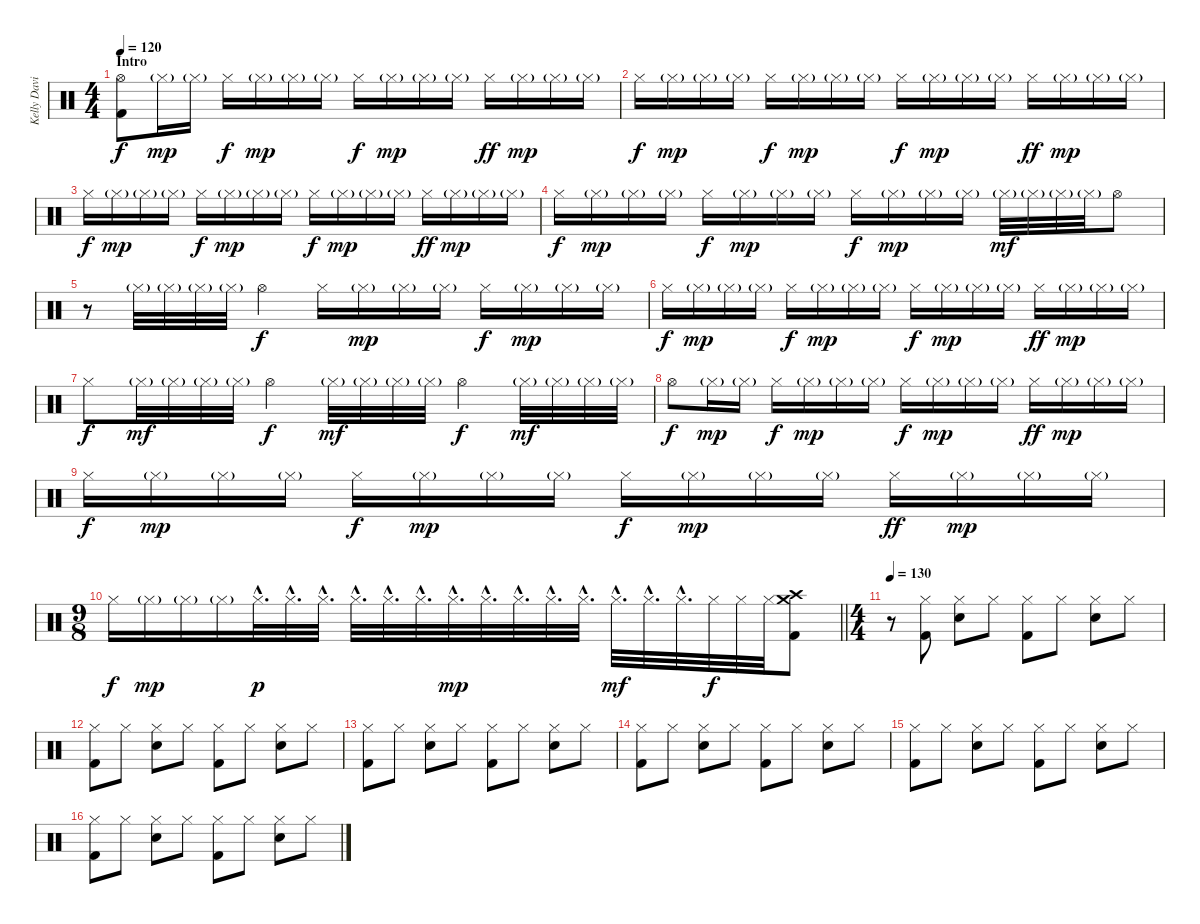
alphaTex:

\track ("Kelly David Smith" "Kelly Davi") {instrument percussion}
\staff {score}
\articulation defaults
\ts (4 4)
\section ("" "Intro")
\tempo 120
\clef neutral
\ks c
("Hi-Hat (open)" "Kick (hit) 2").8{dy f} "Hi-Hat (closed)"{g}.16{dy mp} "Hi-Hat (closed)"{g}.16 "Hi-Hat (closed)".16{dy f} "Hi-Hat (closed)"{g}.16{dy mp} "Hi-Hat (closed)"{g}.16 "Hi-Hat (closed)"{g}.16 "Hi-Hat (closed)".16{dy f} "Hi-Hat (closed)"{g}.16{dy mp} "Hi-Hat (closed)"{g}.16 "Hi-Hat (closed)"{g}.16 "Hi-Hat (closed)".16{dy ff} "Hi-Hat (closed)"{g}.16{dy mp} "Hi-Hat (closed)"{g}.16 "Hi-Hat (closed)"{g}.16 |
"Hi-Hat (closed)".16{dy f} "Hi-Hat (closed)"{g}.16{dy mp} "Hi-Hat (closed)"{g}.16 "Hi-Hat (closed)"{g}.16 "Hi-Hat (closed)".16{dy f} "Hi-Hat (closed)"{g}.16{dy mp} "Hi-Hat (closed)"{g}.16 "Hi-Hat (closed)"{g}.16 "Hi-Hat (closed)".16{dy f} "Hi-Hat (closed)"{g}.16{dy mp} "Hi-Hat (closed)"{g}.16 "Hi-Hat (closed)"{g}.16 "Hi-Hat (closed)".16{dy ff} "Hi-Hat (closed)"{g}.16{dy mp} "Hi-Hat (closed)"{g}.16 "Hi-Hat (closed)"{g}.16 |
"Hi-Hat (closed)".16{dy f} "Hi-Hat (closed)"{g}.16{dy mp} "Hi-Hat (closed)"{g}.16 "Hi-Hat (closed)"{g}.16 "Hi-Hat (closed)".16{dy f} "Hi-Hat (closed)"{g}.16{dy mp} "Hi-Hat (closed)"{g}.16 "Hi-Hat (closed)"{g}.16 "Hi-Hat (closed)".16{dy f} "Hi-Hat (closed)"{g}.16{dy mp} "Hi-Hat (closed)"{g}.16 "Hi-Hat (closed)"{g}.16 "Hi-Hat (closed)".16{dy ff} "Hi-Hat (closed)"{g}.16{dy mp} "Hi-Hat (closed)"{g}.16 "Hi-Hat (closed)"{g}.16 |
"Hi-Hat (closed)".16{dy f} "Hi-Hat (closed)"{g}.16{dy mp} "Hi-Hat (closed)"{g}.16 "Hi-Hat (closed)"{g}.16 "Hi-Hat (closed)".16{dy f} "Hi-Hat (closed)"{g}.16{dy mp} "Hi-Hat (closed)"{g}.16 "Hi-Hat (closed)"{g}.16 "Hi-Hat (closed)".16{dy f} "Hi-Hat (closed)"{g}.16{dy mp} "Hi-Hat (closed)"{g}.16 "Hi-Hat (closed)"{g}.16 "Hi-Hat (closed)"{g}.32{dy mf} "Hi-Hat (closed)"{g}.32 "Hi-Hat (closed)"{g}.32 "Hi-Hat (closed)"{g}.32 "Hi-Hat (open)".8 |
r.8 "Hi-Hat (closed)"{g}.32 "Hi-Hat (closed)"{g}.32 "Hi-Hat (closed)"{g}.32 "Hi-Hat (closed)"{g}.32 "Hi-Hat (open)".4{dy f} "Hi-Hat (closed)".16 "Hi-Hat (closed)"{g}.16{dy mp} "Hi-Hat (closed)"{g}.16 "Hi-Hat (closed)"{g}.16 "Hi-Hat (closed)".16{dy f} "Hi-Hat (closed)"{g}.16{dy mp} "Hi-Hat (closed)"{g}.16 "Hi-Hat (closed)"{g}.16 |
"Hi-Hat (closed)".16{dy f} "Hi-Hat (closed)"{g}.16{dy mp} "Hi-Hat (closed)"{g}.16 "Hi-Hat (closed)"{g}.16 "Hi-Hat (closed)".16{dy f} "Hi-Hat (closed)"{g}.16{dy mp} "Hi-Hat (closed)"{g}.16 "Hi-Hat (closed)"{g}.16 "Hi-Hat (closed)".16{dy f} "Hi-Hat (closed)"{g}.16{dy mp} "Hi-Hat (closed)"{g}.16 "Hi-Hat (closed)"{g}.16 "Hi-Hat (closed)".16{dy ff} "Hi-Hat (closed)"{g}.16{dy mp} "Hi-Hat (closed)"{g}.16 "Hi-Hat (closed)"{g}.16 |
"Hi-Hat (closed)".8{dy f} "Hi-Hat (closed)"{g}.32{dy mf} "Hi-Hat (closed)"{g}.32 "Hi-Hat (closed)"{g}.32 "Hi-Hat (closed)"{g}.32 "Hi-Hat (open)".4{dy f} "Hi-Hat (closed)"{g}.32{dy mf} "Hi-Hat (closed)"{g}.32 "Hi-Hat (closed)"{g}.32 "Hi-Hat (closed)"{g}.32 "Hi-Hat (open)".4{dy f} "Hi-Hat (closed)"{g}.32{dy mf} "Hi-Hat (closed)"{g}.32 "Hi-Hat (closed)"{g}.32 "Hi-Hat (closed)"{g}.32 |
"Hi-Hat (open)".8{dy f} "Hi-Hat (closed)"{g}.16{dy mp} "Hi-Hat (closed)"{g}.16 "Hi-Hat (closed)".16{dy f} "Hi-Hat (closed)"{g}.16{dy mp} "Hi-Hat (closed)"{g}.16 "Hi-Hat (closed)"{g}.16 "Hi-Hat (closed)".16{dy f} "Hi-Hat (closed)"{g}.16{dy mp} "Hi-Hat (closed)"{g}.16 "Hi-Hat (closed)"{g}.16 "Hi-Hat (closed)".16{dy ff} "Hi-Hat (closed)"{g}.16{dy mp} "Hi-Hat (closed)"{g}.16 "Hi-Hat (closed)"{g}.16 |
"Hi-Hat (closed)".16{dy f} "Hi-Hat (closed)"{g}.16{dy mp} "Hi-Hat (closed)"{g}.16 "Hi-Hat (closed)"{g}.16 "Hi-Hat (closed)".16{dy f} "Hi-Hat (closed)"{g}.16{dy mp} "Hi-Hat (closed)"{g}.16 "Hi-Hat (closed)"{g}.16 "Hi-Hat (closed)".16{dy f} "Hi-Hat (closed)"{g}.16{dy mp} "Hi-Hat (closed)"{g}.16 "Hi-Hat (closed)"{g}.16 "Hi-Hat (closed)".16{dy ff} "Hi-Hat (closed)"{g}.16{dy mp} "Hi-Hat (closed)"{g}.16 "Hi-Hat (closed)"{g}.16 |
\ts (9 8)
\barLineRight lightlight "Hi-Hat (closed)".16{dy f} "Hi-Hat (closed)"{g}.16{dy mp} "Hi-Hat (closed)"{g}.16 "Hi-Hat (closed)"{g}.16 "Hi-Hat (closed)"{hac}.32{d dy p} "Hi-Hat (closed)"{hac}.32{d} "Hi-Hat (closed)"{hac}.32{d} "Hi-Hat (closed)"{hac}.32{d} "Hi-Hat (closed)"{hac}.32{d} "Hi-Hat (closed)"{hac}.32{d} "Hi-Hat (closed)"{hac}.32{d dy mp} "Hi-Hat (closed)"{hac}.32{d} "Hi-Hat (closed)"{hac}.32{d} "Hi-Hat (closed)"{hac}.32{d} "Hi-Hat (closed)"{hac}.32{d} "Hi-Hat (closed)"{hac}.32{d dy mf} "Hi-Hat (closed)"{hac}.32{d} "Hi-Hat (closed)"{hac}.32{d} "Hi-Hat (closed)".32{dy f} "Hi-Hat (closed)".32 "Hi-Hat (closed)".32
("Crash high (hit)" "Crash medium (hit)" "Kick (hit) 2").8 |
\ts (4 4)
\tempo 130
r.8 ("Hi-Hat (closed)" "Kick (hit) 2").8 ("Hi-Hat (closed)" "Snare (hit) 2").8 "Hi-Hat (closed)".8 ("Hi-Hat (closed)" "Kick (hit) 2").8 "Hi-Hat (closed)".8 ("Hi-Hat (closed)" "Snare (hit) 2").8 "Hi-Hat (closed)".8 |
("Hi-Hat (closed)" "Kick (hit) 2").8 "Hi-Hat (closed)".8 ("Hi-Hat (closed)" "Snare (hit) 2").8 "Hi-Hat (closed)".8 ("Hi-Hat (closed)" "Kick (hit) 2").8 "Hi-Hat (closed)".8 ("Hi-Hat (closed)" "Snare (hit) 2").8 "Hi-Hat (closed)".8 |
("Hi-Hat (closed)" "Kick (hit) 2").8 "Hi-Hat (closed)".8 ("Hi-Hat (closed)" "Snare (hit) 2").8 "Hi-Hat (closed)".8 ("Hi-Hat (closed)" "Kick (hit) 2").8 "Hi-Hat (closed)".8 ("Hi-Hat (closed)" "Snare (hit) 2").8 "Hi-Hat (closed)".8 |
("Hi-Hat (closed)" "Kick (hit) 2").8 "Hi-Hat (closed)".8 ("Hi-Hat (closed)" "Snare (hit) 2").8 "Hi-Hat (closed)".8 ("Hi-Hat (closed)" "Kick (hit) 2").8 "Hi-Hat (closed)".8 ("Hi-Hat (closed)" "Snare (hit) 2").8 "Hi-Hat (closed)".8 |
("Hi-Hat (closed)" "Kick (hit) 2").8 "Hi-Hat (closed)".8 ("Hi-Hat (closed)" "Snare (hit) 2").8 "Hi-Hat (closed)".8 ("Hi-Hat (closed)" "Kick (hit) 2").8 "Hi-Hat (closed)".8 ("Hi-Hat (closed)" "Snare (hit) 2").8 "Hi-Hat (closed)".8 |
("Hi-Hat (closed)" "Kick (hit) 2").8 "Hi-Hat (closed)".8 ("Hi-Hat (closed)" "Snare (hit) 2").8 "Hi-Hat (closed)".8 ("Hi-Hat (closed)" "Kick (hit) 2").8 "Hi-Hat (closed)".8 ("Hi-Hat (closed)" "Snare (hit) 2").8 "Hi-Hat (closed)".8
